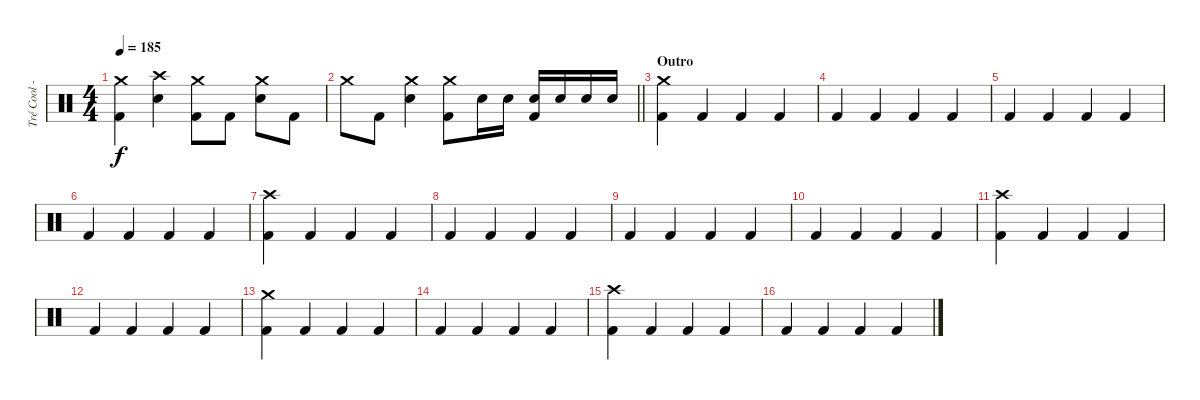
\track ("Tré Cool - Drums" "Tré Cool -") {instrument percussion}
\staff {score}
\articulation defaults
\ts (4 4)
\tempo 185
\clef neutral
\ks c
("Crash medium (hit)" "Kick (hit) 2").4{dy f} ("Crash high (hit)" "Electric Snare (hit)").4 ("Crash medium (hit)" "Kick (hit) 2").8 "Kick (hit) 2".8 ("Crash medium (hit)" "Electric Snare (hit)").8 "Kick (hit) 2".8 |
\barLineRight lightlight "Crash medium (hit)".8 "Kick (hit) 2".8
("Crash medium (hit)" "Electric Snare (hit)").4 ("Crash medium (hit)" "Kick (hit) 2").8 "Electric Snare (hit)".16 "Electric Snare (hit)".16 ("Electric Snare (hit)" "Kick (hit) 2").16 "Electric Snare (hit)".16 "Electric Snare (hit)".16 "Electric Snare (hit)".16 |
\section ("" "Outro")
("Crash medium (hit)" "Kick (hit) 2").4 "Kick (hit) 2".4 "Kick (hit) 2".4 "Kick (hit) 2".4 |
"Kick (hit) 2".4 "Kick (hit) 2".4 "Kick (hit) 2".4 "Kick (hit) 2".4 |
"Kick (hit) 2".4 "Kick (hit) 2".4 "Kick (hit) 2".4 "Kick (hit) 2".4 |
"Kick (hit) 2".4 "Kick (hit) 2".4 "Kick (hit) 2".4 "Kick (hit) 2".4 |
("Crash high (hit)" "Kick (hit) 2").4 "Kick (hit) 2".4 "Kick (hit) 2".4 "Kick (hit) 2".4 |
"Kick (hit) 2".4 "Kick (hit) 2".4 "Kick (hit) 2".4 "Kick (hit) 2".4 |
"Kick (hit) 2".4 "Kick (hit) 2".4 "Kick (hit) 2".4 "Kick (hit) 2".4 |
"Kick (hit) 2".4 "Kick (hit) 2".4 "Kick (hit) 2".4 "Kick (hit) 2".4 |
("Crash high (hit)" "Kick (hit) 2").4 "Kick (hit) 2".4 "Kick (hit) 2".4 "Kick (hit) 2".4 |
"Kick (hit) 2".4 "Kick (hit) 2".4 "Kick (hit) 2".4 "Kick (hit) 2".4 |
("Crash medium (hit)" "Kick (hit) 2").4 "Kick (hit) 2".4 "Kick (hit) 2".4 "Kick (hit) 2".4 |
"Kick (hit) 2".4 "Kick (hit) 2".4 "Kick (hit) 2".4 "Kick (hit) 2".4 |
("Crash high (hit)" "Kick (hit) 2").4 "Kick (hit) 2".4 "Kick (hit) 2".4 "Kick (hit) 2".4 |
"Kick (hit) 2".4 "Kick (hit) 2".4 "Kick (hit) 2".4 "Kick (hit) 2".4
